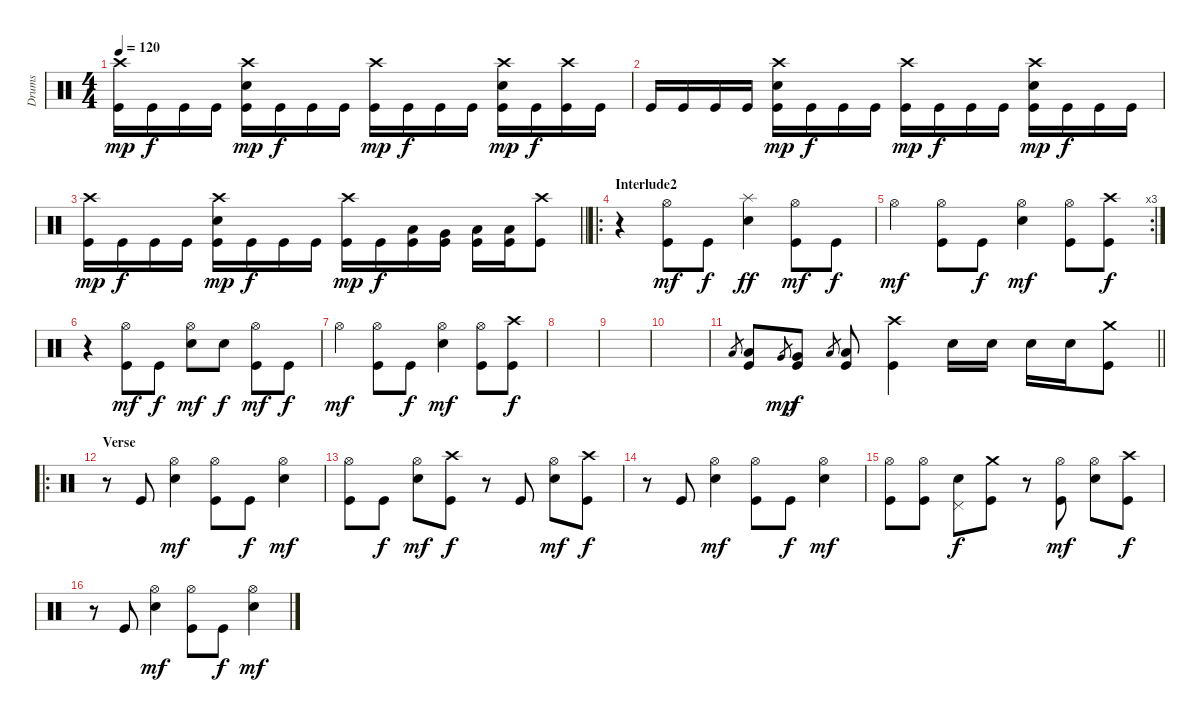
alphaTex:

\track ("Drums" "Drums") {instrument percussion}
\staff {score}
\articulation defaults
\ts (4 4)
\tempo 120
\clef neutral
\ks c
("Crash high (hit)" "Kick (hit)").16{dy mp} "Kick (hit)".16{dy f} "Kick (hit)".16 "Kick (hit)".16 ("Crash high (hit)" "Snare (hit) 2" "Kick (hit)").16{dy mp} "Kick (hit)".16{dy f} "Kick (hit)".16 "Kick (hit)".16 ("Crash high (hit)" "Kick (hit)").16{dy mp} "Kick (hit)".16{dy f} "Kick (hit)".16 "Kick (hit)".16 ("Crash high (hit)" "Snare (hit) 2" "Kick (hit)").16{dy mp} "Kick (hit)".16{dy f} ("Crash high (hit)" "Kick (hit)").16 "Kick (hit)".16 |
"Kick (hit)".16 "Kick (hit)".16 "Kick (hit)".16 "Kick (hit)".16 ("Crash high (hit)" "Snare (hit) 2" "Kick (hit)").16{dy mp} "Kick (hit)".16{dy f} "Kick (hit)".16 "Kick (hit)".16 ("Crash high (hit)" "Kick (hit)").16{dy mp} "Kick (hit)".16{dy f} "Kick (hit)".16 "Kick (hit)".16 ("Crash high (hit)" "Snare (hit) 2" "Kick (hit)").16{dy mp} "Kick (hit)".16{dy f} "Kick (hit)".16 "Kick (hit)".16 |
\barLineRight lightlight
("Crash high (hit)" "Kick (hit)").16{dy mp} "Kick (hit)".16{dy f} "Kick (hit)".16 "Kick (hit)".16 ("Crash high (hit)" "Snare (hit) 2" "Kick (hit)").16{dy mp} "Kick (hit)".16{dy f} "Kick (hit)".16 "Kick (hit)".16 ("Crash high (hit)" "Kick (hit)").16{dy mp} "Kick (hit)".16{dy f} ("Low Tom (hit)" "Kick (hit)").16 ("Very Low Tom (hit)" "Kick (hit)").16 ("Low Floor Tom (hit)" "Kick (hit)").16 ("Low Floor Tom (hit)" "Kick (hit)").16 ("Crash high (hit)" "Kick (hit)").8 |
\ro
\section ("" "Interlude2")
r.4 ("Hi-Hat (open)" "Kick (hit)").8{dy mf} "Kick (hit)".8{dy f} ("Splash (hit)" "Snare (hit) 2").4{dy ff} ("Hi-Hat (open)" "Kick (hit)").8{dy mf} "Kick (hit)".8{dy f} |
\rc 3 "Hi-Hat (open)".4{dy mf}
("Hi-Hat (open)" "Kick (hit)").8 "Kick (hit)".8{dy f} ("Hi-Hat (open)" "Snare (hit) 2").4{dy mf} ("Hi-Hat (open)" "Kick (hit)").8 ("Crash high (hit)" "Kick (hit)").8{dy f} |
r.4 ("Hi-Hat (open)" "Kick (hit)").8{dy mf} "Kick (hit)".8{dy f} ("Hi-Hat (open)" "Snare (hit) 2").8{dy mf} "Snare (hit) 2".8{dy f} ("Hi-Hat (open)" "Kick (hit)").8{dy mf} "Kick (hit)".8{dy f} |
"Hi-Hat (open)".4{dy mf} ("Hi-Hat (open)" "Kick (hit)").8 "Kick (hit)".8{dy f} ("Hi-Hat (open)" "Snare (hit) 2").4{dy mf} ("Hi-Hat (open)" "Kick (hit)").8 ("Crash high (hit)" "Kick (hit)").8{dy f} |
|
|
|
\barLineRight lightlight "Low Tom (hit)".8{gr}
("Low Tom (hit)" "Kick (hit)").8 "Very Low Tom (hit)".8{gr dy mp} ("Very Low Tom (hit)" "Kick (hit)").8{dy f} "Low Floor Tom (hit)".8{gr} ("Low Floor Tom (hit)" "Kick (hit)").8 ("Crash high (hit)" "Kick (hit)").4 "Snare (hit) 2".16 "Snare (hit) 2".16 "Snare (hit) 2".16 "Snare (hit) 2".16 ("Crash medium (hit)" "Kick (hit)").8 |
\ro
\section ("" "Verse")
r.8 "Kick (hit)".8 ("Hi-Hat (open)" "Snare (hit) 2").4{dy mf} ("Hi-Hat (open)" "Kick (hit)").8 "Kick (hit)".8{dy f} ("Hi-Hat (open)" "Snare (hit) 2").4{dy mf} |
("Hi-Hat (open)" "Kick (hit)").8 "Kick (hit)".8{dy f} ("Hi-Hat (open)" "Snare (hit) 2").8{dy mf} ("Crash high (hit)" "Kick (hit)").8{dy f} r.8 "Kick (hit)".8 ("Hi-Hat (open)" "Snare (hit) 2").8{dy mf} ("Crash high (hit)" "Kick (hit)").8{dy f} |
r.8 "Kick (hit)".8 ("Hi-Hat (open)" "Snare (hit) 2").4{dy mf} ("Hi-Hat (open)" "Kick (hit)").8 "Kick (hit)".8{dy f} ("Hi-Hat (open)" "Snare (hit) 2").4{dy mf} |
("Hi-Hat (open)" "Kick (hit)").8 ("Hi-Hat (open)" "Kick (hit)").8 ("Snare (hit) 2" "Pedal Hi-Hat (hit)").8{dy f} ("Crash medium (hit)" "Kick (hit)").8 r.8 ("Hi-Hat (open)" "Kick (hit)").8{dy mf} ("Hi-Hat (open)" "Snare (hit) 2").8 ("Crash high (hit)" "Kick (hit)").8{dy f} |
r.8 "Kick (hit)".8 ("Hi-Hat (open)" "Snare (hit) 2").4{dy mf} ("Hi-Hat (open)" "Kick (hit)").8 "Kick (hit)".8{dy f} ("Hi-Hat (open)" "Snare (hit) 2").4{dy mf}
